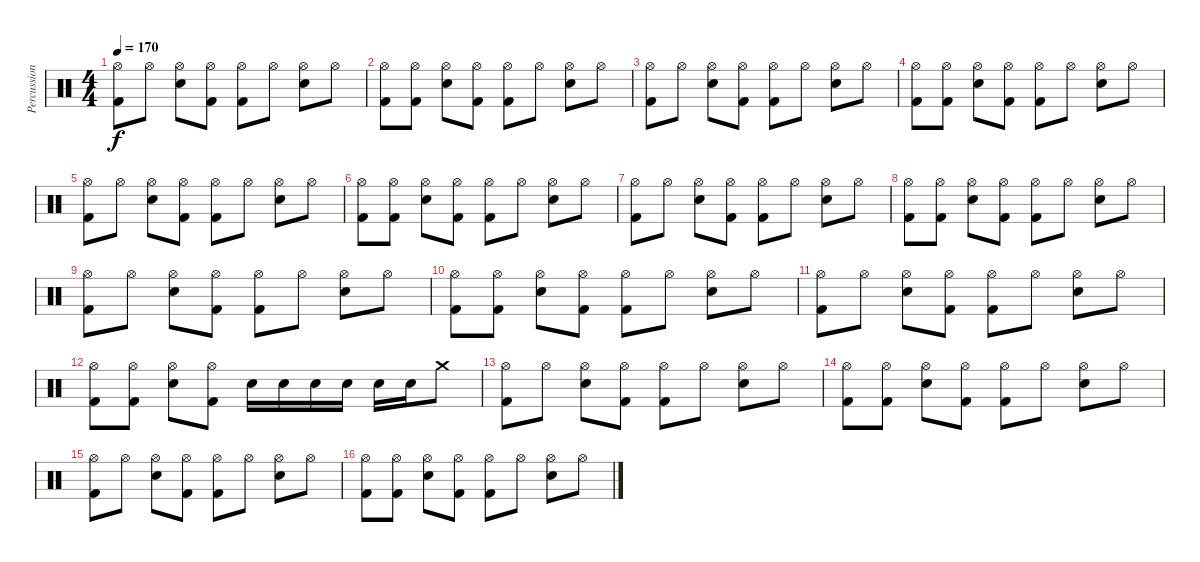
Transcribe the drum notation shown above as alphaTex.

\track ("Percussion" "Percussion") {instrument percussion}
\staff {score}
\articulation defaults
\ts (4 4)
\tempo 170
\clef neutral
\ks c
("Hi-Hat (open)" "Kick (hit) 2").8{dy f} "Hi-Hat (open)".8 ("Hi-Hat (open)" "Snare (hit) 2").8 ("Hi-Hat (open)" "Kick (hit) 2").8 ("Hi-Hat (open)" "Kick (hit) 2").8 "Hi-Hat (open)".8 ("Hi-Hat (open)" "Snare (hit) 2").8 "Hi-Hat (open)".8 |
("Hi-Hat (open)" "Kick (hit) 2").8 ("Hi-Hat (open)" "Kick (hit) 2").8 ("Hi-Hat (open)" "Snare (hit) 2").8 ("Hi-Hat (open)" "Kick (hit) 2").8 ("Hi-Hat (open)" "Kick (hit) 2").8 "Hi-Hat (open)".8 ("Hi-Hat (open)" "Snare (hit) 2").8 "Hi-Hat (open)".8 |
("Hi-Hat (open)" "Kick (hit) 2").8 "Hi-Hat (open)".8 ("Hi-Hat (open)" "Snare (hit) 2").8 ("Hi-Hat (open)" "Kick (hit) 2").8 ("Hi-Hat (open)" "Kick (hit) 2").8 "Hi-Hat (open)".8 ("Hi-Hat (open)" "Snare (hit) 2").8 "Hi-Hat (open)".8 |
("Hi-Hat (open)" "Kick (hit) 2").8 ("Hi-Hat (open)" "Kick (hit) 2").8 ("Hi-Hat (open)" "Snare (hit) 2").8 ("Hi-Hat (open)" "Kick (hit) 2").8 ("Hi-Hat (open)" "Kick (hit) 2").8 "Hi-Hat (open)".8 ("Hi-Hat (open)" "Snare (hit) 2").8 "Hi-Hat (open)".8 |
("Hi-Hat (open)" "Kick (hit) 2").8 "Hi-Hat (open)".8 ("Hi-Hat (open)" "Snare (hit) 2").8 ("Hi-Hat (open)" "Kick (hit) 2").8 ("Hi-Hat (open)" "Kick (hit) 2").8 "Hi-Hat (open)".8 ("Hi-Hat (open)" "Snare (hit) 2").8 "Hi-Hat (open)".8 |
("Hi-Hat (open)" "Kick (hit) 2").8 ("Hi-Hat (open)" "Kick (hit) 2").8 ("Hi-Hat (open)" "Snare (hit) 2").8 ("Hi-Hat (open)" "Kick (hit) 2").8 ("Hi-Hat (open)" "Kick (hit) 2").8 "Hi-Hat (open)".8 ("Hi-Hat (open)" "Snare (hit) 2").8 "Hi-Hat (open)".8 |
("Hi-Hat (open)" "Kick (hit) 2").8 "Hi-Hat (open)".8 ("Hi-Hat (open)" "Snare (hit) 2").8 ("Hi-Hat (open)" "Kick (hit) 2").8 ("Hi-Hat (open)" "Kick (hit) 2").8 "Hi-Hat (open)".8 ("Hi-Hat (open)" "Snare (hit) 2").8 "Hi-Hat (open)".8 |
("Hi-Hat (open)" "Kick (hit) 2").8 ("Hi-Hat (open)" "Kick (hit) 2").8 ("Hi-Hat (open)" "Snare (hit) 2").8 ("Hi-Hat (open)" "Kick (hit) 2").8 ("Hi-Hat (open)" "Kick (hit) 2").8 "Hi-Hat (open)".8 ("Hi-Hat (open)" "Snare (hit) 2").8 "Hi-Hat (open)".8 |
("Hi-Hat (open)" "Kick (hit) 2").8 "Hi-Hat (open)".8 ("Hi-Hat (open)" "Snare (hit) 2").8 ("Hi-Hat (open)" "Kick (hit) 2").8 ("Hi-Hat (open)" "Kick (hit) 2").8 "Hi-Hat (open)".8 ("Hi-Hat (open)" "Snare (hit) 2").8 "Hi-Hat (open)".8 |
("Hi-Hat (open)" "Kick (hit) 2").8 ("Hi-Hat (open)" "Kick (hit) 2").8 ("Hi-Hat (open)" "Snare (hit) 2").8 ("Hi-Hat (open)" "Kick (hit) 2").8 ("Hi-Hat (open)" "Kick (hit) 2").8 "Hi-Hat (open)".8 ("Hi-Hat (open)" "Snare (hit) 2").8 "Hi-Hat (open)".8 |
("Hi-Hat (open)" "Kick (hit) 2").8 "Hi-Hat (open)".8 ("Hi-Hat (open)" "Snare (hit) 2").8 ("Hi-Hat (open)" "Kick (hit) 2").8 ("Hi-Hat (open)" "Kick (hit) 2").8 "Hi-Hat (open)".8 ("Hi-Hat (open)" "Snare (hit) 2").8 "Hi-Hat (open)".8 |
("Hi-Hat (open)" "Kick (hit) 2").8 ("Hi-Hat (open)" "Kick (hit) 2").8 ("Hi-Hat (open)" "Snare (hit) 2").8 ("Hi-Hat (open)" "Kick (hit) 2").8 "Snare (hit) 2".16 "Snare (hit) 2".16 "Snare (hit) 2".16 "Snare (hit) 2".16 "Snare (hit) 2".16 "Snare (hit) 2".16 "Crash medium (hit)".8 |
("Hi-Hat (open)" "Kick (hit) 2").8 "Hi-Hat (open)".8 ("Hi-Hat (open)" "Snare (hit) 2").8 ("Hi-Hat (open)" "Kick (hit) 2").8 ("Hi-Hat (open)" "Kick (hit) 2").8 "Hi-Hat (open)".8 ("Hi-Hat (open)" "Snare (hit) 2").8 "Hi-Hat (open)".8 |
("Hi-Hat (open)" "Kick (hit) 2").8 ("Hi-Hat (open)" "Kick (hit) 2").8 ("Hi-Hat (open)" "Snare (hit) 2").8 ("Hi-Hat (open)" "Kick (hit) 2").8 ("Hi-Hat (open)" "Kick (hit) 2").8 "Hi-Hat (open)".8 ("Hi-Hat (open)" "Snare (hit) 2").8 "Hi-Hat (open)".8 |
("Hi-Hat (open)" "Kick (hit) 2").8 "Hi-Hat (open)".8 ("Hi-Hat (open)" "Snare (hit) 2").8 ("Hi-Hat (open)" "Kick (hit) 2").8 ("Hi-Hat (open)" "Kick (hit) 2").8 "Hi-Hat (open)".8 ("Hi-Hat (open)" "Snare (hit) 2").8 "Hi-Hat (open)".8 |
("Hi-Hat (open)" "Kick (hit) 2").8 ("Hi-Hat (open)" "Kick (hit) 2").8 ("Hi-Hat (open)" "Snare (hit) 2").8 ("Hi-Hat (open)" "Kick (hit) 2").8 ("Hi-Hat (open)" "Kick (hit) 2").8 "Hi-Hat (open)".8 ("Hi-Hat (open)" "Snare (hit) 2").8 "Hi-Hat (open)".8
